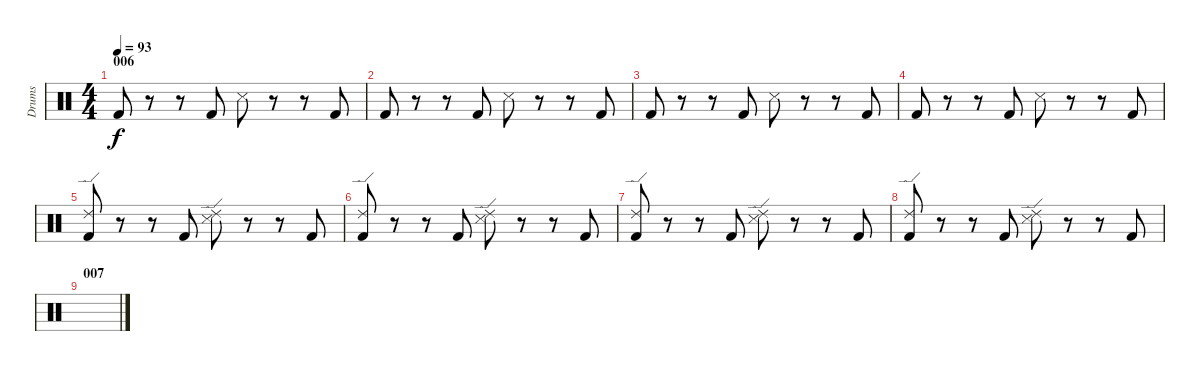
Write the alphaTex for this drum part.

\track ("Drums" "Drums") {instrument percussion}
\staff {score}
\articulation defaults
\ts (4 4)
\section ("" "006")
\tempo 93
\clef neutral
\ks c "Kick (hit) 2".8{dy f}
r.8 r.8 "Kick (hit) 2".8 "Snare (side stick) 3".8 r.8 r.8 "Kick (hit) 2".8 |
"Kick (hit) 2".8 r.8 r.8 "Kick (hit) 2".8 "Snare (side stick) 3".8 r.8 r.8 "Kick (hit) 2".8 |
"Kick (hit) 2".8 r.8 r.8 "Kick (hit) 2".8 "Snare (side stick) 3".8 r.8 r.8 "Kick (hit) 2".8 |
"Kick (hit) 2".8 r.8 r.8 "Kick (hit) 2".8 "Snare (side stick) 3".8 r.8 r.8 "Kick (hit) 2".8 |
("Kick (hit) 2" "Ride (edge) 2").8 r.8 r.8 "Kick (hit) 2".8 ("Snare (side stick) 3" "Ride (edge) 2").8 r.8 r.8 "Kick (hit) 2".8 |
("Kick (hit) 2" "Ride (edge) 2").8 r.8 r.8 "Kick (hit) 2".8 ("Snare (side stick) 3" "Ride (edge) 2").8 r.8 r.8 "Kick (hit) 2".8 |
("Kick (hit) 2" "Ride (edge) 2").8 r.8 r.8 "Kick (hit) 2".8 ("Snare (side stick) 3" "Ride (edge) 2").8 r.8 r.8 "Kick (hit) 2".8 |
("Kick (hit) 2" "Ride (edge) 2").8 r.8 r.8 "Kick (hit) 2".8 ("Snare (side stick) 3" "Ride (edge) 2").8 r.8 r.8 "Kick (hit) 2".8 |
\section ("" "007")
